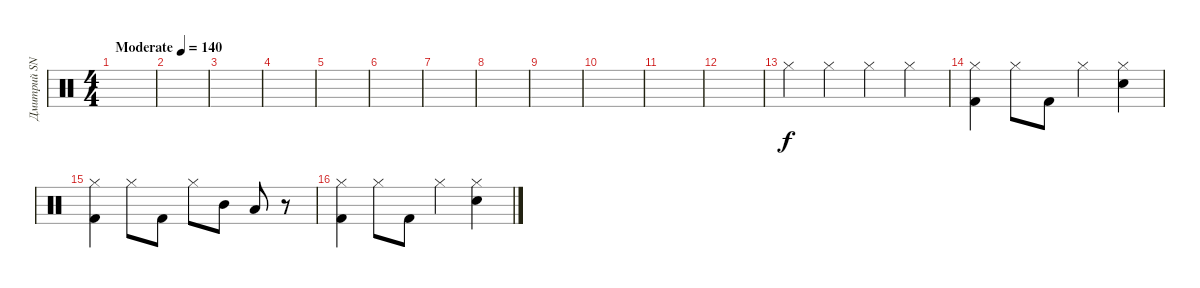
\track ("Дмитрий SNAKE Хакимов" "Дмитрий SN") {instrument percussion}
\staff {score}
\articulation defaults
\ts (4 4)
\tempo (140 "Moderate")
\clef neutral
\ks c
|
|
|
|
|
|
|
|
|
|
|
|
"Hi-Hat (closed)".4 "Hi-Hat (closed)".4 "Hi-Hat (closed)".4 "Hi-Hat (closed)".4 |
("Hi-Hat (closed)" "Kick (hit) 2").4 "Hi-Hat (closed)".8 "Kick (hit) 2".8 "Hi-Hat (closed)".4 ("Hi-Hat (closed)" "Snare (hit) 2").4 |
("Hi-Hat (closed)" "Kick (hit) 2").4 "Hi-Hat (closed)".8 "Kick (hit) 2".8 "Hi-Hat (closed)".8 "Mid Tom (hit)".8 "Low Tom (hit)".8 r.8 |
("Hi-Hat (closed)" "Kick (hit) 2").4 "Hi-Hat (closed)".8 "Kick (hit) 2".8 "Hi-Hat (closed)".4 ("Hi-Hat (closed)" "Snare (hit) 2").4
